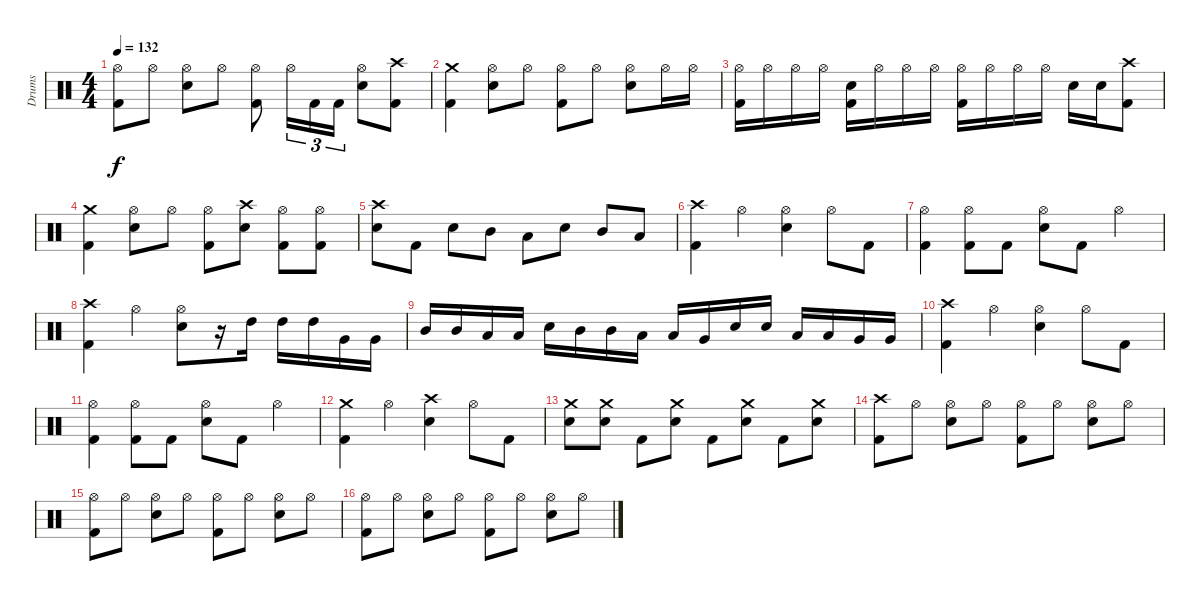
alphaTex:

\track ("Drums" "Drums") {instrument percussion}
\staff {score}
\articulation defaults
\ts (4 4)
\tempo 132
\clef neutral
\ks c
("Hi-Hat (open)" "Kick (hit) 2").8{dy f} "Hi-Hat (open)".8 ("Hi-Hat (open)" "Snare (hit) 2").8 "Hi-Hat (open)".8 ("Hi-Hat (open)" "Kick (hit) 2").8 "Hi-Hat (open)".16{tu (3 2)} "Kick (hit) 2".16{tu (3 2)} "Kick (hit) 2".16{tu (3 2)} ("Hi-Hat (open)" "Snare (hit) 2").8 ("Crash high (hit)" "Kick (hit) 2").8 |
("Crash medium (hit)" "Kick (hit) 2").4 ("Hi-Hat (open)" "Snare (hit) 2").8 "Hi-Hat (open)".8 ("Hi-Hat (open)" "Kick (hit) 2").8 "Hi-Hat (open)".8 ("Hi-Hat (open)" "Snare (hit) 2").8 "Hi-Hat (open)".16 "Hi-Hat (open)".16 |
("Hi-Hat (open)" "Kick (hit) 2").16 "Hi-Hat (open)".16 "Hi-Hat (open)".16 "Hi-Hat (open)".16 ("Snare (hit) 2" "Kick (hit) 2").16 "Hi-Hat (open)".16 "Hi-Hat (open)".16 "Hi-Hat (open)".16 ("Hi-Hat (open)" "Kick (hit) 2").16 "Hi-Hat (open)".16 "Hi-Hat (open)".16 "Hi-Hat (open)".16 "Snare (hit) 2".16 "Snare (hit) 2".16 ("Crash high (hit)" "Kick (hit) 2").8 |
("Crash medium (hit)" "Kick (hit) 2").4 ("Hi-Hat (open)" "Snare (hit) 2").8 "Hi-Hat (open)".8 ("Hi-Hat (open)" "Kick (hit) 2").8 ("Crash high (hit)" "Snare (hit) 2").8 ("Hi-Hat (open)" "Kick (hit) 2").8 ("Hi-Hat (open)" "Kick (hit) 2").8 |
("Crash high (hit)" "Snare (hit) 2").8 "Kick (hit) 2".8 "Snare (hit) 2".8 "Mid Tom (hit)".8 "Low Tom (hit)".8 "Snare (hit) 2".8 "Mid Tom (hit)".8 "Low Tom (hit)".8 |
("Crash high (hit)" "Kick (hit) 2").4 "Hi-Hat (open)".4 ("Hi-Hat (open)" "Snare (hit) 2").4 "Hi-Hat (open)".8 "Kick (hit) 2".8 |
("Hi-Hat (open)" "Kick (hit) 2").4 ("Hi-Hat (open)" "Kick (hit) 2").8 "Kick (hit) 2".8 ("Hi-Hat (open)" "Snare (hit) 2").8 "Kick (hit) 2".8 "Hi-Hat (open)".4 |
("Crash high (hit)" "Kick (hit) 2").4 "Hi-Hat (open)".4 ("Hi-Hat (open)" "Snare (hit) 2").8 r.16 "High Tom (hit)".16 "High Tom (hit)".16 "High Tom (hit)".16 "Very Low Tom (hit)".16 "Very Low Tom (hit)".16 |
"Mid Tom (hit)".16 "Mid Tom (hit)".16 "Low Tom (hit)".16 "Low Tom (hit)".16 "Snare (hit) 2".16 "Mid Tom (hit)".16 "Mid Tom (hit)".16 "Low Tom (hit)".16 "Low Tom (hit)".16 "Very Low Tom (hit)".16 "Snare (hit) 2".16 "Snare (hit) 2".16 "Low Tom (hit)".16 "Low Tom (hit)".16 "Very Low Tom (hit)".16 "Very Low Tom (hit)".16 |
("Crash high (hit)" "Kick (hit) 2").4 "Hi-Hat (open)".4 ("Hi-Hat (open)" "Snare (hit) 2").4 "Hi-Hat (open)".8 "Kick (hit) 2".8 |
("Hi-Hat (open)" "Kick (hit) 2").4 ("Hi-Hat (open)" "Kick (hit) 2").8 "Kick (hit) 2".8 ("Hi-Hat (open)" "Snare (hit) 2").8 "Kick (hit) 2".8 "Hi-Hat (open)".4 |
("Crash medium (hit)" "Kick (hit) 2").4 "Hi-Hat (open)".4 ("Crash high (hit)" "Snare (hit) 2").4 "Hi-Hat (open)".8 "Kick (hit) 2".8 |
("Crash medium (hit)" "Snare (hit) 2").8 ("Crash medium (hit)" "Snare (hit) 2").8 "Kick (hit) 2".8 ("Crash medium (hit)" "Snare (hit) 2").8 "Kick (hit) 2".8 ("Crash medium (hit)" "Snare (hit) 2").8 "Kick (hit) 2".8 ("Crash medium (hit)" "Snare (hit) 2").8 |
("Crash high (hit)" "Kick (hit) 2").8 "Hi-Hat (open)".8 ("Hi-Hat (open)" "Snare (hit) 2").8 "Hi-Hat (open)".8 ("Hi-Hat (open)" "Kick (hit) 2").8 "Hi-Hat (open)".8 ("Hi-Hat (open)" "Snare (hit) 2").8 "Hi-Hat (open)".8 |
("Hi-Hat (open)" "Kick (hit) 2").8 "Hi-Hat (open)".8 ("Hi-Hat (open)" "Snare (hit) 2").8 "Hi-Hat (open)".8 ("Hi-Hat (open)" "Kick (hit) 2").8 "Hi-Hat (open)".8 ("Hi-Hat (open)" "Snare (hit) 2").8 "Hi-Hat (open)".8 |
("Hi-Hat (open)" "Kick (hit) 2").8 "Hi-Hat (open)".8 ("Hi-Hat (open)" "Snare (hit) 2").8 "Hi-Hat (open)".8 ("Hi-Hat (open)" "Kick (hit) 2").8 "Hi-Hat (open)".8 ("Hi-Hat (open)" "Snare (hit) 2").8 "Hi-Hat (open)".8
